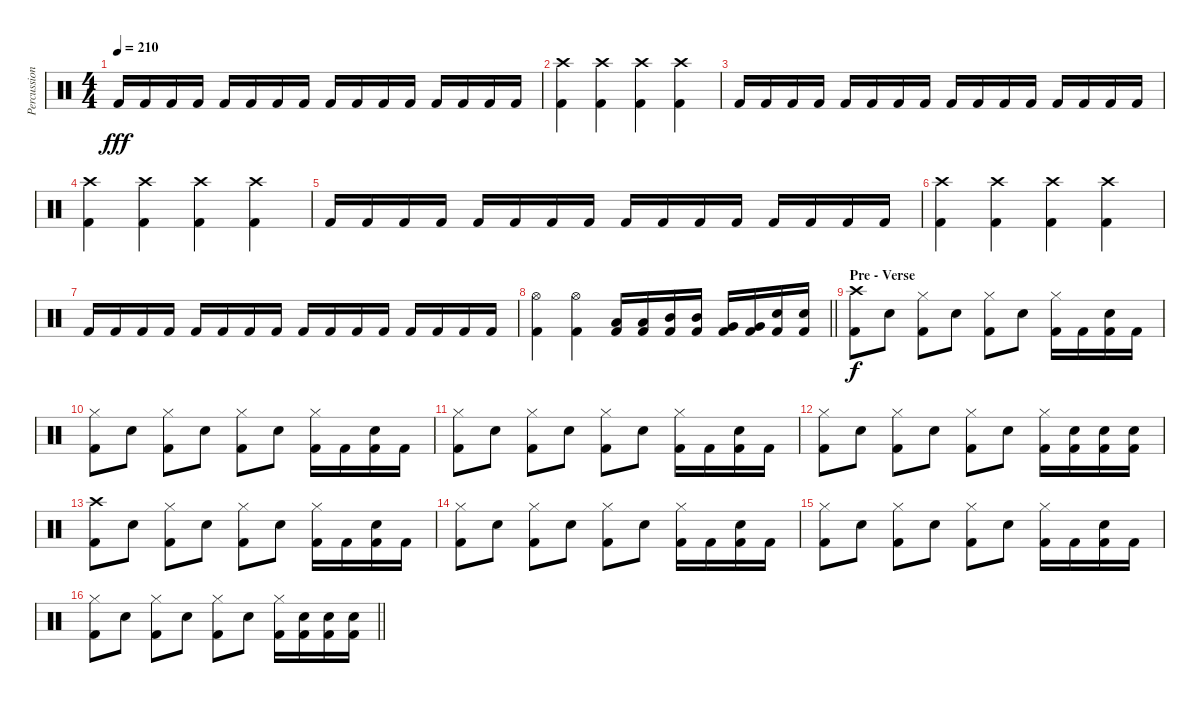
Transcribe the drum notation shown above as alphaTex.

\track ("Percussion" "Percussion") {instrument percussion}
\staff {score}
\articulation defaults
\ts (4 4)
\tempo 210
\clef neutral
\ks c "Kick (hit) 2".16{dy fff} "Kick (hit) 2".16 "Kick (hit) 2".16 "Kick (hit) 2".16 "Kick (hit) 2".16 "Kick (hit) 2".16 "Kick (hit) 2".16 "Kick (hit) 2".16 "Kick (hit) 2".16 "Kick (hit) 2".16 "Kick (hit) 2".16 "Kick (hit) 2".16 "Kick (hit) 2".16 "Kick (hit) 2".16 "Kick (hit) 2".16 "Kick (hit) 2".16
|
("Crash high (hit)" "Kick (hit) 2").4 ("Crash high (hit)" "Kick (hit) 2").4 ("Crash high (hit)" "Kick (hit) 2").4 ("Crash high (hit)" "Kick (hit) 2").4 |
"Kick (hit) 2".16 "Kick (hit) 2".16 "Kick (hit) 2".16 "Kick (hit) 2".16 "Kick (hit) 2".16 "Kick (hit) 2".16 "Kick (hit) 2".16 "Kick (hit) 2".16 "Kick (hit) 2".16 "Kick (hit) 2".16 "Kick (hit) 2".16 "Kick (hit) 2".16 "Kick (hit) 2".16 "Kick (hit) 2".16 "Kick (hit) 2".16 "Kick (hit) 2".16 |
("Crash high (hit)" "Kick (hit) 2").4 ("Crash high (hit)" "Kick (hit) 2").4 ("Crash high (hit)" "Kick (hit) 2").4 ("Crash high (hit)" "Kick (hit) 2").4 |
"Kick (hit) 2".16 "Kick (hit) 2".16 "Kick (hit) 2".16 "Kick (hit) 2".16 "Kick (hit) 2".16 "Kick (hit) 2".16 "Kick (hit) 2".16 "Kick (hit) 2".16 "Kick (hit) 2".16 "Kick (hit) 2".16 "Kick (hit) 2".16 "Kick (hit) 2".16 "Kick (hit) 2".16 "Kick (hit) 2".16 "Kick (hit) 2".16 "Kick (hit) 2".16 |
("Crash high (hit)" "Kick (hit) 2").4 ("Crash high (hit)" "Kick (hit) 2").4 ("Crash high (hit)" "Kick (hit) 2").4 ("Crash high (hit)" "Kick (hit) 2").4 |
"Kick (hit) 2".16 "Kick (hit) 2".16 "Kick (hit) 2".16 "Kick (hit) 2".16 "Kick (hit) 2".16 "Kick (hit) 2".16 "Kick (hit) 2".16 "Kick (hit) 2".16 "Kick (hit) 2".16 "Kick (hit) 2".16 "Kick (hit) 2".16 "Kick (hit) 2".16 "Kick (hit) 2".16 "Kick (hit) 2".16 "Kick (hit) 2".16 "Kick (hit) 2".16 |
\barLineRight lightlight
("Hi-Hat (open)" "Kick (hit) 2").4 ("Hi-Hat (open)" "Kick (hit) 2").4 ("Low Tom (hit)" "Kick (hit) 2").16 ("Low Tom (hit)" "Kick (hit) 2").16 ("Mid Tom (hit)" "Kick (hit) 2").16 ("Mid Tom (hit)" "Kick (hit) 2").16 ("Very Low Tom (hit)" "Kick (hit) 2").16 ("Very Low Tom (hit)" "Kick (hit) 2").16 ("Electric Snare (hit)" "Kick (hit) 2").16 ("Electric Snare (hit)" "Kick (hit) 2").16 |
\section ("" "Pre - Verse")
("Crash high (hit)" "Kick (hit) 2").8{dy f} "Electric Snare (hit)".8 ("Hi-Hat (closed)" "Kick (hit) 2").8 "Electric Snare (hit)".8 ("Hi-Hat (closed)" "Kick (hit) 2").8 "Electric Snare (hit)".8 ("Hi-Hat (closed)" "Kick (hit) 2").16 "Kick (hit) 2".16 ("Electric Snare (hit)" "Kick (hit) 2").16 "Kick (hit) 2".16 |
("Hi-Hat (closed)" "Kick (hit) 2").8 "Electric Snare (hit)".8 ("Hi-Hat (closed)" "Kick (hit) 2").8 "Electric Snare (hit)".8 ("Hi-Hat (closed)" "Kick (hit) 2").8 "Electric Snare (hit)".8 ("Hi-Hat (closed)" "Kick (hit) 2").16 "Kick (hit) 2".16 ("Electric Snare (hit)" "Kick (hit) 2").16 "Kick (hit) 2".16 |
("Hi-Hat (closed)" "Kick (hit) 2").8 "Electric Snare (hit)".8 ("Hi-Hat (closed)" "Kick (hit) 2").8 "Electric Snare (hit)".8 ("Hi-Hat (closed)" "Kick (hit) 2").8 "Electric Snare (hit)".8 ("Hi-Hat (closed)" "Kick (hit) 2").16 "Kick (hit) 2".16 ("Electric Snare (hit)" "Kick (hit) 2").16 "Kick (hit) 2".16 |
("Hi-Hat (closed)" "Kick (hit) 2").8 "Electric Snare (hit)".8 ("Hi-Hat (closed)" "Kick (hit) 2").8 "Electric Snare (hit)".8 ("Hi-Hat (closed)" "Kick (hit) 2").8 "Electric Snare (hit)".8 ("Hi-Hat (closed)" "Kick (hit) 2").16 ("Electric Snare (hit)" "Kick (hit) 2").16 ("Electric Snare (hit)" "Kick (hit) 2").16 ("Electric Snare (hit)" "Kick (hit) 2").16 |
("Crash high (hit)" "Kick (hit) 2").8 "Electric Snare (hit)".8 ("Hi-Hat (closed)" "Kick (hit) 2").8 "Electric Snare (hit)".8 ("Hi-Hat (closed)" "Kick (hit) 2").8 "Electric Snare (hit)".8 ("Hi-Hat (closed)" "Kick (hit) 2").16 "Kick (hit) 2".16 ("Electric Snare (hit)" "Kick (hit) 2").16 "Kick (hit) 2".16 |
("Hi-Hat (closed)" "Kick (hit) 2").8 "Electric Snare (hit)".8 ("Hi-Hat (closed)" "Kick (hit) 2").8 "Electric Snare (hit)".8 ("Hi-Hat (closed)" "Kick (hit) 2").8 "Electric Snare (hit)".8 ("Hi-Hat (closed)" "Kick (hit) 2").16 "Kick (hit) 2".16 ("Electric Snare (hit)" "Kick (hit) 2").16 "Kick (hit) 2".16 |
("Hi-Hat (closed)" "Kick (hit) 2").8 "Electric Snare (hit)".8 ("Hi-Hat (closed)" "Kick (hit) 2").8 "Electric Snare (hit)".8 ("Hi-Hat (closed)" "Kick (hit) 2").8 "Electric Snare (hit)".8 ("Hi-Hat (closed)" "Kick (hit) 2").16 "Kick (hit) 2".16 ("Electric Snare (hit)" "Kick (hit) 2").16 "Kick (hit) 2".16 |
\barLineRight lightlight
("Hi-Hat (closed)" "Kick (hit) 2").8 "Electric Snare (hit)".8 ("Hi-Hat (closed)" "Kick (hit) 2").8 "Electric Snare (hit)".8 ("Hi-Hat (closed)" "Kick (hit) 2").8 "Electric Snare (hit)".8 ("Hi-Hat (closed)" "Kick (hit) 2").16 ("Electric Snare (hit)" "Kick (hit) 2").16 ("Electric Snare (hit)" "Kick (hit) 2").16 ("Electric Snare (hit)" "Kick (hit) 2").16
